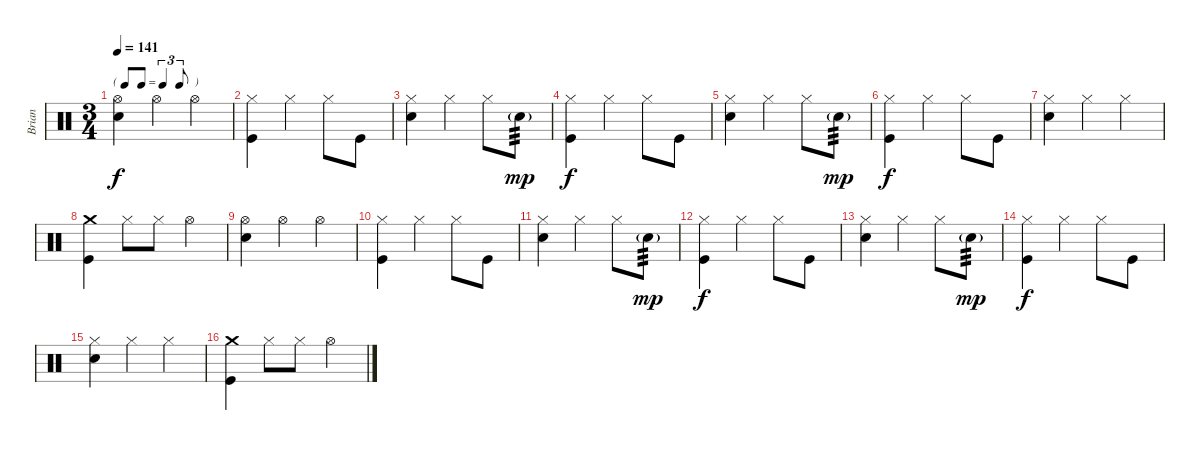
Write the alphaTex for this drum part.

\track ("Brian" "Brian") {instrument percussion}
\staff {score}
\articulation defaults
\ts (3 4)
\tf triplet8th
\tempo 141
\clef neutral
\ks c
("Hi-Hat (open)" "Electric Snare (hit)").4{dy f} "Hi-Hat (open)".4 "Hi-Hat (open)".4 |
("Hi-Hat (closed)" "Kick (hit)").4{volume 16} "Hi-Hat (closed)".4 "Hi-Hat (closed)".8 "Kick (hit)".8 |
("Hi-Hat (closed)" "Electric Snare (hit)").4 "Hi-Hat (closed)".4 "Hi-Hat (closed)".8 "Electric Snare (hit)"{g}.8{tp 3 dy mp volume 7} |
("Hi-Hat (closed)" "Kick (hit)").4{dy f volume 16} "Hi-Hat (closed)".4 "Hi-Hat (closed)".8 "Kick (hit)".8 |
("Hi-Hat (closed)" "Electric Snare (hit)").4 "Hi-Hat (closed)".4 "Hi-Hat (closed)".8 "Electric Snare (hit)"{g}.8{tp 3 dy mp volume 7} |
("Hi-Hat (closed)" "Kick (hit)").4{dy f volume 16} "Hi-Hat (closed)".4 "Hi-Hat (closed)".8 "Kick (hit)".8 |
("Hi-Hat (closed)" "Electric Snare (hit)").4 "Hi-Hat (closed)".4 "Hi-Hat (closed)".4 |
("Crash medium (hit)" "Kick (hit)").4 "Hi-Hat (closed)".8 "Hi-Hat (closed)".8 "Hi-Hat (open)".4 |
("Hi-Hat (open)" "Electric Snare (hit)").4 "Hi-Hat (open)".4 "Hi-Hat (open)".4 |
("Hi-Hat (closed)" "Kick (hit)").4{volume 16} "Hi-Hat (closed)".4 "Hi-Hat (closed)".8 "Kick (hit)".8 |
("Hi-Hat (closed)" "Electric Snare (hit)").4 "Hi-Hat (closed)".4 "Hi-Hat (closed)".8 "Electric Snare (hit)"{g}.8{tp 3 dy mp volume 7} |
("Hi-Hat (closed)" "Kick (hit)").4{dy f volume 16} "Hi-Hat (closed)".4 "Hi-Hat (closed)".8 "Kick (hit)".8 |
("Hi-Hat (closed)" "Electric Snare (hit)").4 "Hi-Hat (closed)".4 "Hi-Hat (closed)".8 "Electric Snare (hit)"{g}.8{tp 3 dy mp volume 7} |
("Hi-Hat (closed)" "Kick (hit)").4{dy f volume 16} "Hi-Hat (closed)".4 "Hi-Hat (closed)".8 "Kick (hit)".8 |
("Hi-Hat (closed)" "Electric Snare (hit)").4 "Hi-Hat (closed)".4 "Hi-Hat (closed)".4 |
("Crash medium (hit)" "Kick (hit)").4 "Hi-Hat (closed)".8 "Hi-Hat (closed)".8 "Hi-Hat (open)".4
